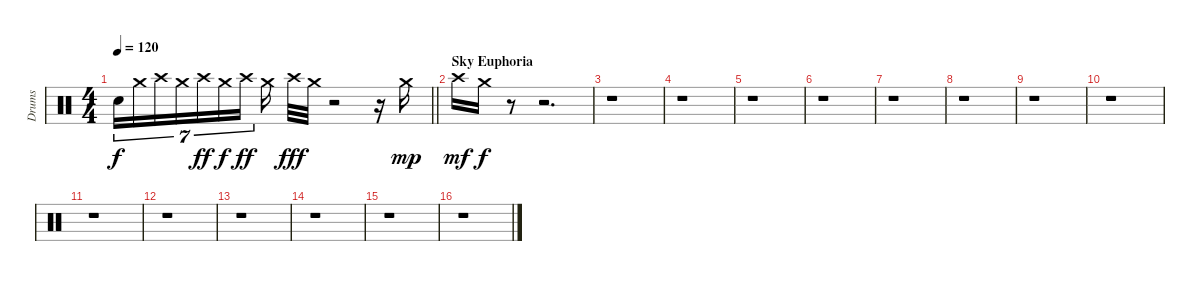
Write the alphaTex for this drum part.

\track ("Drums" "Drums") {instrument percussion}
\staff {score}
\articulation defaults
\ts (4 4)
\tempo 120
\clef neutral
\barLineRight lightlight
\ks c "Snare (hit)"{t}.16{tu (7 4) dy f} "Crash medium (hit)".16{tu (7 4)} "Crash high (hit)".16{tu (7 4)} "Crash medium (hit)".16{tu (7 4)} "Crash high (hit)".16{tu (7 4) dy ff} "Crash medium (hit)".16{tu (7 4) dy f} "Crash high (hit)".16{tu (7 4) dy ff} "Crash medium (hit)".16 "Crash high (hit)".32{dy fff} "Crash medium (hit)".32
r.2 r.16 "Crash medium (hit)".16{dy mp} |
\section ("" "Sky Euphoria")
"Crash high (hit)".16{dy mf} "Crash medium (hit)".16{dy f} r.8 r.2{d} |
r.1 |
r.1 |
r.1 |
r.1 |
r.1 |
r.1 |
r.1 |
r.1 |
r.1 |
r.1 |
r.1 |
r.1 |
r.1 |
r.1
